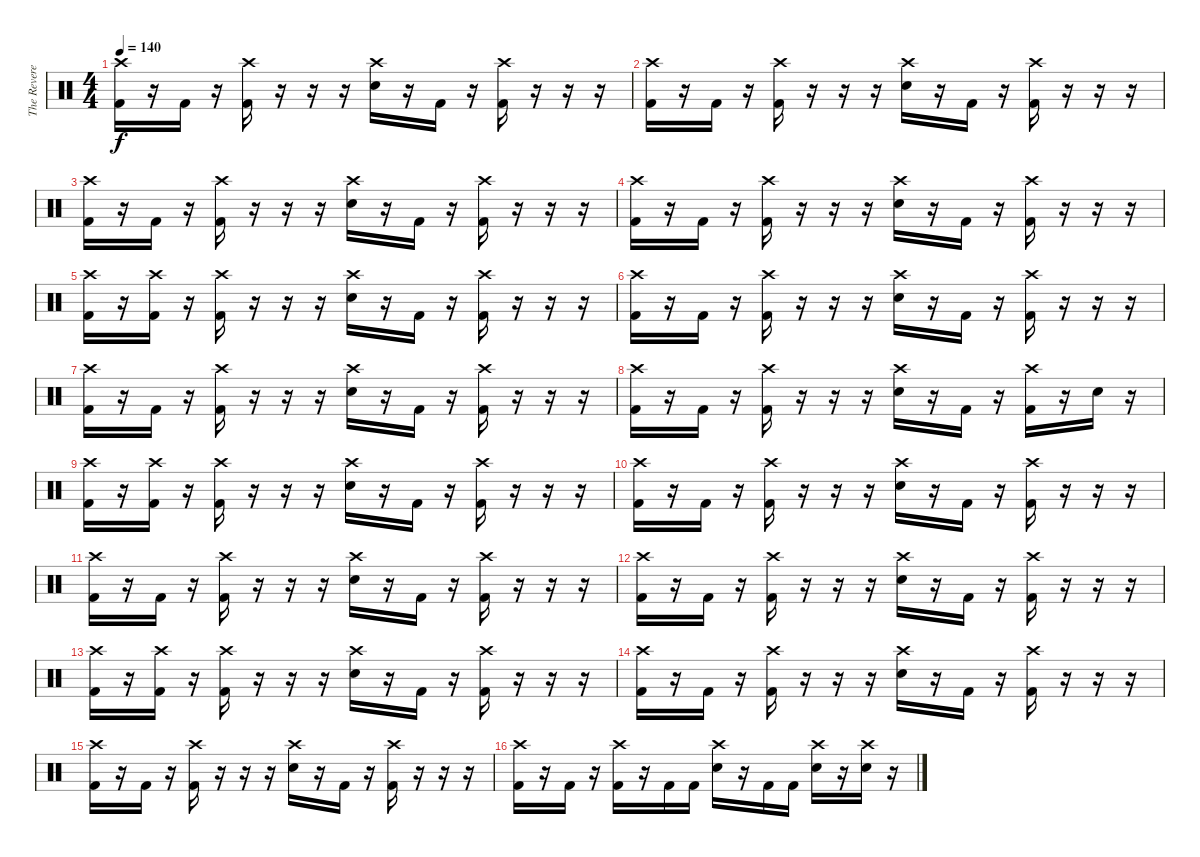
\track ("The Reverend" "The Revere") {instrument percussion}
\staff {score}
\articulation defaults
\ts (4 4)
\tempo 140
\clef neutral
\ks c
("Crash high (hit)" "Kick (hit) 2").16{dy f} r.16 "Kick (hit) 2".16 r.16 ("Crash high (hit)" "Kick (hit) 2").16 r.16 r.16 r.16 ("Crash high (hit)" "Electric Snare (hit)").16 r.16 "Kick (hit) 2".16 r.16 ("Crash high (hit)" "Kick (hit) 2").16 r.16 r.16 r.16 |
("Crash high (hit)" "Kick (hit) 2").16 r.16 "Kick (hit) 2".16 r.16 ("Crash high (hit)" "Kick (hit) 2").16 r.16 r.16 r.16 ("Crash high (hit)" "Electric Snare (hit)").16 r.16 "Kick (hit) 2".16 r.16 ("Crash high (hit)" "Kick (hit) 2").16 r.16 r.16 r.16 |
("Crash high (hit)" "Kick (hit) 2").16 r.16 "Kick (hit) 2".16 r.16 ("Crash high (hit)" "Kick (hit) 2").16 r.16 r.16 r.16 ("Crash high (hit)" "Electric Snare (hit)").16 r.16 "Kick (hit) 2".16 r.16 ("Crash high (hit)" "Kick (hit) 2").16 r.16 r.16 r.16 |
("Crash high (hit)" "Kick (hit) 2").16 r.16 "Kick (hit) 2".16 r.16 ("Crash high (hit)" "Kick (hit) 2").16 r.16 r.16 r.16 ("Crash high (hit)" "Electric Snare (hit)").16 r.16 "Kick (hit) 2".16 r.16 ("Crash high (hit)" "Kick (hit) 2").16 r.16 r.16 r.16 |
("Crash high (hit)" "Kick (hit) 2").16 r.16 ("Crash high (hit)" "Kick (hit) 2").16 r.16 ("Crash high (hit)" "Kick (hit) 2").16 r.16 r.16 r.16 ("Crash high (hit)" "Electric Snare (hit)").16 r.16 "Kick (hit) 2".16 r.16 ("Crash high (hit)" "Kick (hit) 2").16 r.16 r.16 r.16 |
("Crash high (hit)" "Kick (hit) 2").16 r.16 "Kick (hit) 2".16 r.16 ("Crash high (hit)" "Kick (hit) 2").16 r.16 r.16 r.16 ("Crash high (hit)" "Electric Snare (hit)").16 r.16 "Kick (hit) 2".16 r.16 ("Crash high (hit)" "Kick (hit) 2").16 r.16 r.16 r.16 |
("Crash high (hit)" "Kick (hit) 2").16 r.16 "Kick (hit) 2".16 r.16 ("Crash high (hit)" "Kick (hit) 2").16 r.16 r.16 r.16 ("Crash high (hit)" "Electric Snare (hit)").16 r.16 "Kick (hit) 2".16 r.16 ("Crash high (hit)" "Kick (hit) 2").16 r.16 r.16 r.16 |
("Crash high (hit)" "Kick (hit) 2").16 r.16 "Kick (hit) 2".16 r.16 ("Crash high (hit)" "Kick (hit) 2").16 r.16 r.16 r.16 ("Crash high (hit)" "Electric Snare (hit)").16 r.16 "Kick (hit) 2".16 r.16 ("Crash high (hit)" "Kick (hit) 2").16 r.16 "Electric Snare (hit)".16 r.16 |
("Crash high (hit)" "Kick (hit) 2").16 r.16 ("Crash high (hit)" "Kick (hit) 2").16 r.16 ("Crash high (hit)" "Kick (hit) 2").16 r.16 r.16 r.16 ("Crash high (hit)" "Electric Snare (hit)").16 r.16 "Kick (hit) 2".16 r.16 ("Crash high (hit)" "Kick (hit) 2").16 r.16 r.16 r.16 |
("Crash high (hit)" "Kick (hit) 2").16 r.16 "Kick (hit) 2".16 r.16 ("Crash high (hit)" "Kick (hit) 2").16 r.16 r.16 r.16 ("Crash high (hit)" "Electric Snare (hit)").16 r.16 "Kick (hit) 2".16 r.16 ("Crash high (hit)" "Kick (hit) 2").16 r.16 r.16 r.16 |
("Crash high (hit)" "Kick (hit) 2").16 r.16 "Kick (hit) 2".16 r.16 ("Crash high (hit)" "Kick (hit) 2").16 r.16 r.16 r.16 ("Crash high (hit)" "Electric Snare (hit)").16 r.16 "Kick (hit) 2".16 r.16 ("Crash high (hit)" "Kick (hit) 2").16 r.16 r.16 r.16 |
("Crash high (hit)" "Kick (hit) 2").16 r.16 "Kick (hit) 2".16 r.16 ("Crash high (hit)" "Kick (hit) 2").16 r.16 r.16 r.16 ("Crash high (hit)" "Electric Snare (hit)").16 r.16 "Kick (hit) 2".16 r.16 ("Crash high (hit)" "Kick (hit) 2").16 r.16 r.16 r.16 |
("Crash high (hit)" "Kick (hit) 2").16 r.16 ("Crash high (hit)" "Kick (hit) 2").16 r.16 ("Crash high (hit)" "Kick (hit) 2").16 r.16 r.16 r.16 ("Crash high (hit)" "Electric Snare (hit)").16 r.16 "Kick (hit) 2".16 r.16 ("Crash high (hit)" "Kick (hit) 2").16 r.16 r.16 r.16 |
("Crash high (hit)" "Kick (hit) 2").16 r.16 "Kick (hit) 2".16 r.16 ("Crash high (hit)" "Kick (hit) 2").16 r.16 r.16 r.16 ("Crash high (hit)" "Electric Snare (hit)").16 r.16 "Kick (hit) 2".16 r.16 ("Crash high (hit)" "Kick (hit) 2").16 r.16 r.16 r.16 |
("Crash high (hit)" "Kick (hit) 2").16 r.16 "Kick (hit) 2".16 r.16 ("Crash high (hit)" "Kick (hit) 2").16 r.16 r.16 r.16 ("Crash high (hit)" "Electric Snare (hit)").16 r.16 "Kick (hit) 2".16 r.16 ("Crash high (hit)" "Kick (hit) 2").16 r.16 r.16 r.16 |
("Crash high (hit)" "Kick (hit) 2").16 r.16 "Kick (hit) 2".16 r.16 ("Crash high (hit)" "Kick (hit) 2").16 r.16 "Kick (hit) 2".16 "Kick (hit) 2".16 ("Crash high (hit)" "Electric Snare (hit)").16 r.16 "Kick (hit) 2".16 "Kick (hit) 2".16 ("Crash high (hit)" "Electric Snare (hit)").16 r.16 ("Crash high (hit)" "Electric Snare (hit)").16 r.16
